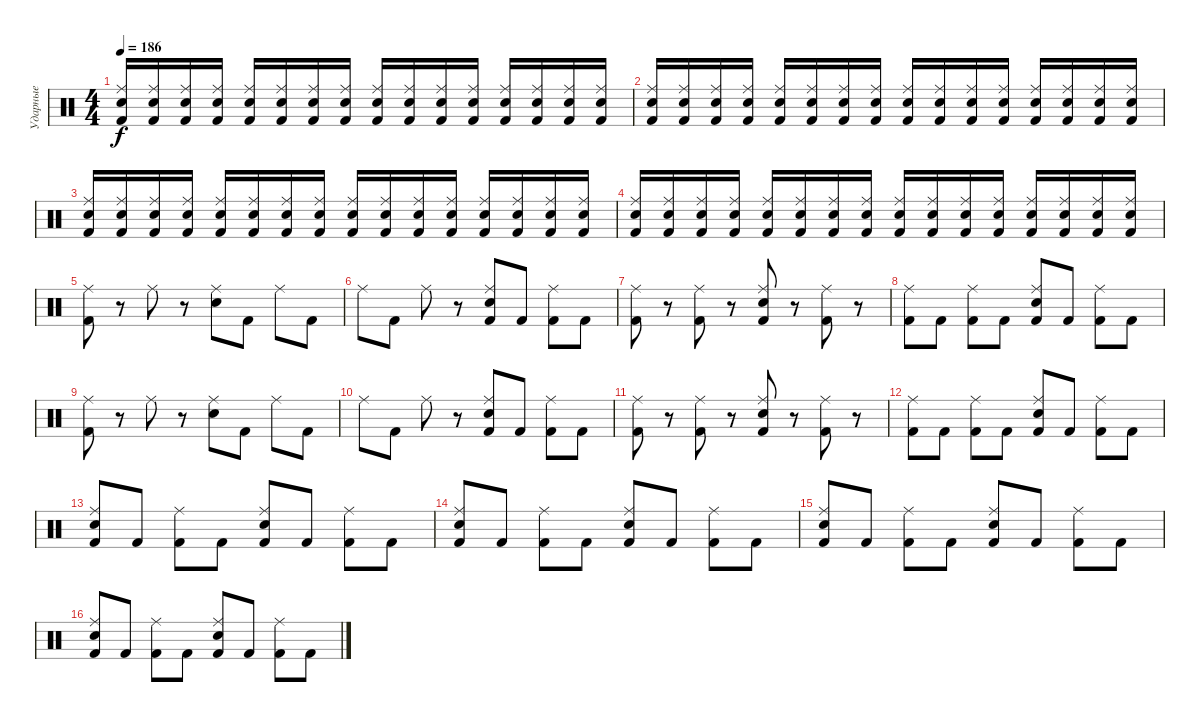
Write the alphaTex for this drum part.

\track ("Ударные" "Ударные") {instrument percussion}
\staff {score}
\articulation defaults
\ts (4 4)
\tempo 186
\clef neutral
\ks c
("Kick (hit) 2" "Ride (middle)" "Snare (hit) 2").16{dy f} ("Kick (hit) 2" "Ride (middle)" "Snare (hit) 2").16 ("Kick (hit) 2" "Ride (middle)" "Snare (hit) 2").16 ("Kick (hit) 2" "Ride (middle)" "Snare (hit) 2").16 ("Kick (hit) 2" "Ride (middle)" "Snare (hit) 2").16 ("Kick (hit) 2" "Ride (middle)" "Snare (hit) 2").16 ("Kick (hit) 2" "Ride (middle)" "Snare (hit) 2").16 ("Kick (hit) 2" "Ride (middle)" "Snare (hit) 2").16 ("Kick (hit) 2" "Ride (middle)" "Snare (hit) 2").16 ("Kick (hit) 2" "Ride (middle)" "Snare (hit) 2").16 ("Kick (hit) 2" "Ride (middle)" "Snare (hit) 2").16 ("Kick (hit) 2" "Ride (middle)" "Snare (hit) 2").16 ("Kick (hit) 2" "Ride (middle)" "Snare (hit) 2").16 ("Kick (hit) 2" "Ride (middle)" "Snare (hit) 2").16 ("Kick (hit) 2" "Ride (middle)" "Snare (hit) 2").16 ("Kick (hit) 2" "Ride (middle)" "Snare (hit) 2").16 |
("Kick (hit) 2" "Ride (middle)" "Snare (hit) 2").16 ("Kick (hit) 2" "Ride (middle)" "Snare (hit) 2").16 ("Kick (hit) 2" "Ride (middle)" "Snare (hit) 2").16 ("Kick (hit) 2" "Ride (middle)" "Snare (hit) 2").16 ("Kick (hit) 2" "Ride (middle)" "Snare (hit) 2").16 ("Kick (hit) 2" "Ride (middle)" "Snare (hit) 2").16 ("Kick (hit) 2" "Ride (middle)" "Snare (hit) 2").16 ("Kick (hit) 2" "Ride (middle)" "Snare (hit) 2").16 ("Kick (hit) 2" "Ride (middle)" "Snare (hit) 2").16 ("Kick (hit) 2" "Ride (middle)" "Snare (hit) 2").16 ("Kick (hit) 2" "Ride (middle)" "Snare (hit) 2").16 ("Kick (hit) 2" "Ride (middle)" "Snare (hit) 2").16 ("Kick (hit) 2" "Ride (middle)" "Snare (hit) 2").16 ("Kick (hit) 2" "Ride (middle)" "Snare (hit) 2").16 ("Kick (hit) 2" "Ride (middle)" "Snare (hit) 2").16 ("Kick (hit) 2" "Ride (middle)" "Snare (hit) 2").16 |
("Kick (hit) 2" "Ride (middle)" "Snare (hit) 2").16 ("Kick (hit) 2" "Ride (middle)" "Snare (hit) 2").16 ("Kick (hit) 2" "Ride (middle)" "Snare (hit) 2").16 ("Kick (hit) 2" "Ride (middle)" "Snare (hit) 2").16 ("Kick (hit) 2" "Ride (middle)" "Snare (hit) 2").16 ("Kick (hit) 2" "Ride (middle)" "Snare (hit) 2").16 ("Kick (hit) 2" "Ride (middle)" "Snare (hit) 2").16 ("Kick (hit) 2" "Ride (middle)" "Snare (hit) 2").16 ("Kick (hit) 2" "Ride (middle)" "Snare (hit) 2").16 ("Kick (hit) 2" "Ride (middle)" "Snare (hit) 2").16 ("Kick (hit) 2" "Ride (middle)" "Snare (hit) 2").16 ("Kick (hit) 2" "Ride (middle)" "Snare (hit) 2").16 ("Kick (hit) 2" "Ride (middle)" "Snare (hit) 2").16 ("Kick (hit) 2" "Ride (middle)" "Snare (hit) 2").16 ("Kick (hit) 2" "Ride (middle)" "Snare (hit) 2").16 ("Kick (hit) 2" "Ride (middle)" "Snare (hit) 2").16 |
("Kick (hit) 2" "Ride (middle)" "Snare (hit) 2").16 ("Kick (hit) 2" "Ride (middle)" "Snare (hit) 2").16 ("Kick (hit) 2" "Ride (middle)" "Snare (hit) 2").16 ("Kick (hit) 2" "Ride (middle)" "Snare (hit) 2").16 ("Kick (hit) 2" "Ride (middle)" "Snare (hit) 2").16 ("Kick (hit) 2" "Ride (middle)" "Snare (hit) 2").16 ("Kick (hit) 2" "Ride (middle)" "Snare (hit) 2").16 ("Kick (hit) 2" "Ride (middle)" "Snare (hit) 2").16 ("Kick (hit) 2" "Ride (middle)" "Snare (hit) 2").16 ("Kick (hit) 2" "Ride (middle)" "Snare (hit) 2").16 ("Kick (hit) 2" "Ride (middle)" "Snare (hit) 2").16 ("Kick (hit) 2" "Ride (middle)" "Snare (hit) 2").16 ("Kick (hit) 2" "Ride (middle)" "Snare (hit) 2").16 ("Kick (hit) 2" "Ride (middle)" "Snare (hit) 2").16 ("Kick (hit) 2" "Ride (middle)" "Snare (hit) 2").16 ("Kick (hit) 2" "Ride (middle)" "Snare (hit) 2").16 |
("Kick (hit) 2" "Ride (middle)").8 r.8 "Ride (middle)".8 r.8 ("Snare (hit) 2" "Ride (middle)").8 "Kick (hit) 2".8 "Ride (middle)".8 "Kick (hit) 2".8 |
"Ride (middle)".8 "Kick (hit) 2".8 "Ride (middle)".8 r.8 ("Kick (hit) 2" "Snare (hit) 2" "Ride (middle)").8 "Kick (hit) 2".8 ("Kick (hit) 2" "Ride (middle)").8 "Kick (hit) 2".8 |
("Kick (hit) 2" "Ride (middle)").8 r.8 ("Kick (hit) 2" "Ride (middle)").8 r.8 ("Kick (hit) 2" "Snare (hit) 2" "Ride (middle)").8 r.8 ("Kick (hit) 2" "Ride (middle)").8 r.8 |
("Kick (hit) 2" "Ride (middle)").8 "Kick (hit) 2".8 ("Kick (hit) 2" "Ride (middle)").8 "Kick (hit) 2".8 ("Kick (hit) 2" "Snare (hit) 2" "Ride (middle)").8 "Kick (hit) 2".8 ("Kick (hit) 2" "Ride (middle)").8 "Kick (hit) 2".8 |
("Kick (hit) 2" "Ride (middle)").8 r.8 "Ride (middle)".8 r.8 ("Snare (hit) 2" "Ride (middle)").8 "Kick (hit) 2".8 "Ride (middle)".8 "Kick (hit) 2".8 |
"Ride (middle)".8 "Kick (hit) 2".8 "Ride (middle)".8 r.8 ("Kick (hit) 2" "Snare (hit) 2" "Ride (middle)").8 "Kick (hit) 2".8 ("Kick (hit) 2" "Ride (middle)").8 "Kick (hit) 2".8 |
("Kick (hit) 2" "Ride (middle)").8 r.8 ("Kick (hit) 2" "Ride (middle)").8 r.8 ("Kick (hit) 2" "Snare (hit) 2" "Ride (middle)").8 r.8 ("Kick (hit) 2" "Ride (middle)").8 r.8 |
("Kick (hit) 2" "Ride (middle)").8 "Kick (hit) 2".8 ("Kick (hit) 2" "Ride (middle)").8 "Kick (hit) 2".8 ("Kick (hit) 2" "Snare (hit) 2" "Ride (middle)").8 "Kick (hit) 2".8 ("Kick (hit) 2" "Ride (middle)").8 "Kick (hit) 2".8 |
("Ride (middle)" "Snare (hit) 2" "Kick (hit) 2").8 "Kick (hit) 2".8 ("Ride (middle)" "Kick (hit) 2").8 "Kick (hit) 2".8 ("Ride (middle)" "Snare (hit) 2" "Kick (hit) 2").8 "Kick (hit) 2".8 ("Ride (middle)" "Kick (hit) 2").8 "Kick (hit) 2".8 |
("Ride (middle)" "Snare (hit) 2" "Kick (hit) 2").8 "Kick (hit) 2".8 ("Ride (middle)" "Kick (hit) 2").8 "Kick (hit) 2".8 ("Ride (middle)" "Snare (hit) 2" "Kick (hit) 2").8 "Kick (hit) 2".8 ("Ride (middle)" "Kick (hit) 2").8 "Kick (hit) 2".8 |
("Ride (middle)" "Snare (hit) 2" "Kick (hit) 2").8 "Kick (hit) 2".8 ("Ride (middle)" "Kick (hit) 2").8 "Kick (hit) 2".8 ("Ride (middle)" "Snare (hit) 2" "Kick (hit) 2").8 "Kick (hit) 2".8 ("Ride (middle)" "Kick (hit) 2").8 "Kick (hit) 2".8 |
("Ride (middle)" "Snare (hit) 2" "Kick (hit) 2").8 "Kick (hit) 2".8 ("Ride (middle)" "Kick (hit) 2").8 "Kick (hit) 2".8 ("Ride (middle)" "Snare (hit) 2" "Kick (hit) 2").8 "Kick (hit) 2".8 ("Ride (middle)" "Kick (hit) 2").8 "Kick (hit) 2".8
